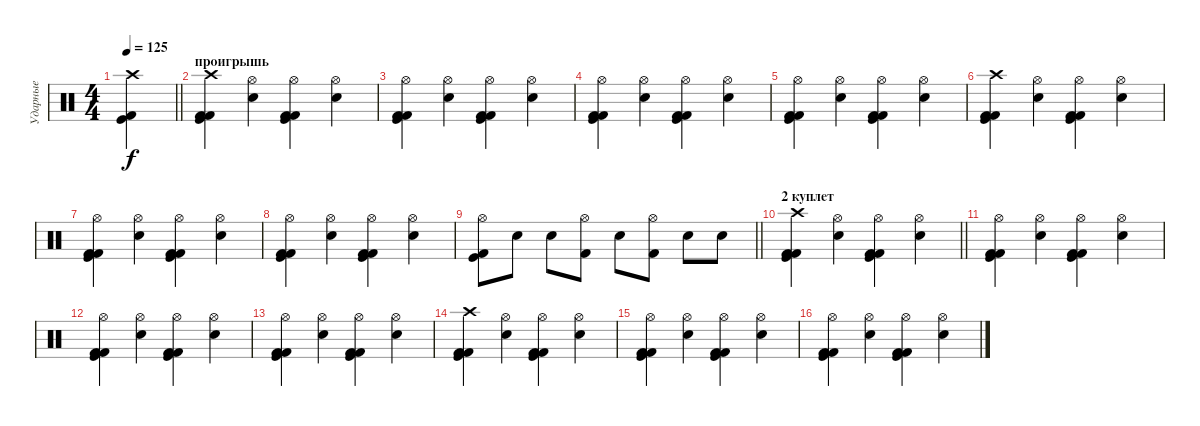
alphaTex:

\track ("Ударные" "Ударные") {instrument percussion}
\staff {score}
\articulation defaults
\ts (4 4)
\tempo 125
\clef neutral
\barLineRight lightlight
\ks c
("Crash high (hit)" "Kick (hit) 2" "Kick (hit)").4{dy f} |
\section ("" "проигрышь")
("Crash high (hit)" "Kick (hit)" "Kick (hit) 2" "Kick (hit) 2").4 ("Hi-Hat (open)" "Electric Snare (hit)").4 ("Hi-Hat (open)" "Kick (hit)" "Kick (hit) 2" "Kick (hit) 2").4 ("Hi-Hat (open)" "Electric Snare (hit)").4 |
("Hi-Hat (open)" "Kick (hit) 2" "Kick (hit) 2" "Kick (hit)").4 ("Hi-Hat (open)" "Electric Snare (hit)").4 ("Hi-Hat (open)" "Kick (hit) 2" "Kick (hit) 2" "Kick (hit)").4 ("Hi-Hat (open)" "Electric Snare (hit)").4 |
("Hi-Hat (open)" "Kick (hit) 2" "Kick (hit) 2" "Kick (hit)").4 ("Hi-Hat (open)" "Electric Snare (hit)").4 ("Hi-Hat (open)" "Kick (hit) 2" "Kick (hit) 2" "Kick (hit)").4 ("Hi-Hat (open)" "Electric Snare (hit)").4 |
("Hi-Hat (open)" "Kick (hit) 2" "Kick (hit) 2" "Kick (hit)").4 ("Hi-Hat (open)" "Electric Snare (hit)").4 ("Hi-Hat (open)" "Kick (hit) 2" "Kick (hit) 2" "Kick (hit)").4 ("Hi-Hat (open)" "Electric Snare (hit)").4 |
("Crash high (hit)" "Kick (hit)" "Kick (hit) 2" "Kick (hit) 2").4 ("Hi-Hat (open)" "Electric Snare (hit)").4 ("Hi-Hat (open)" "Kick (hit)" "Kick (hit) 2" "Kick (hit) 2").4 ("Hi-Hat (open)" "Electric Snare (hit)").4 |
("Hi-Hat (open)" "Kick (hit) 2" "Kick (hit) 2" "Kick (hit)").4 ("Hi-Hat (open)" "Electric Snare (hit)").4 ("Hi-Hat (open)" "Kick (hit) 2" "Kick (hit) 2" "Kick (hit)").4 ("Hi-Hat (open)" "Electric Snare (hit)").4 |
("Hi-Hat (open)" "Kick (hit) 2" "Kick (hit) 2" "Kick (hit)").4 ("Hi-Hat (open)" "Electric Snare (hit)").4 ("Hi-Hat (open)" "Kick (hit) 2" "Kick (hit) 2" "Kick (hit)").4 ("Hi-Hat (open)" "Electric Snare (hit)").4 |
\barLineRight lightlight
("Hi-Hat (open)" "Kick (hit) 2" "Kick (hit)").8 "Electric Snare (hit)".8 "Electric Snare (hit)".8 ("Hi-Hat (open)" "Kick (hit) 2").8 "Electric Snare (hit)".8 ("Hi-Hat (open)" "Kick (hit) 2").8 "Electric Snare (hit)".8 "Electric Snare (hit)".8 |
\section ("" "2 куплет")
\barLineRight lightlight
("Crash high (hit)" "Kick (hit)" "Kick (hit) 2" "Kick (hit) 2").4 ("Hi-Hat (open)" "Electric Snare (hit)").4 ("Hi-Hat (open)" "Kick (hit)" "Kick (hit) 2" "Kick (hit) 2").4 ("Hi-Hat (open)" "Electric Snare (hit)").4 |
\section ("" "")
("Hi-Hat (open)" "Kick (hit) 2" "Kick (hit) 2" "Kick (hit)").4 ("Hi-Hat (open)" "Electric Snare (hit)").4 ("Hi-Hat (open)" "Kick (hit) 2" "Kick (hit) 2" "Kick (hit)").4 ("Hi-Hat (open)" "Electric Snare (hit)").4 |
("Hi-Hat (open)" "Kick (hit) 2" "Kick (hit) 2" "Kick (hit)").4 ("Hi-Hat (open)" "Electric Snare (hit)").4 ("Hi-Hat (open)" "Kick (hit) 2" "Kick (hit) 2" "Kick (hit)").4 ("Hi-Hat (open)" "Electric Snare (hit)").4 |
("Hi-Hat (open)" "Kick (hit) 2" "Kick (hit) 2" "Kick (hit)").4 ("Hi-Hat (open)" "Electric Snare (hit)").4 ("Hi-Hat (open)" "Kick (hit) 2" "Kick (hit) 2" "Kick (hit)").4 ("Hi-Hat (open)" "Electric Snare (hit)").4 |
("Crash high (hit)" "Kick (hit)" "Kick (hit) 2" "Kick (hit) 2").4 ("Hi-Hat (open)" "Electric Snare (hit)").4 ("Hi-Hat (open)" "Kick (hit)" "Kick (hit) 2" "Kick (hit) 2").4 ("Hi-Hat (open)" "Electric Snare (hit)").4 |
("Hi-Hat (open)" "Kick (hit) 2" "Kick (hit) 2" "Kick (hit)").4 ("Hi-Hat (open)" "Electric Snare (hit)").4 ("Hi-Hat (open)" "Kick (hit) 2" "Kick (hit) 2" "Kick (hit)").4 ("Hi-Hat (open)" "Electric Snare (hit)").4 |
("Hi-Hat (open)" "Kick (hit) 2" "Kick (hit) 2" "Kick (hit)").4 ("Hi-Hat (open)" "Electric Snare (hit)").4 ("Hi-Hat (open)" "Kick (hit) 2" "Kick (hit) 2" "Kick (hit)").4 ("Hi-Hat (open)" "Electric Snare (hit)").4
